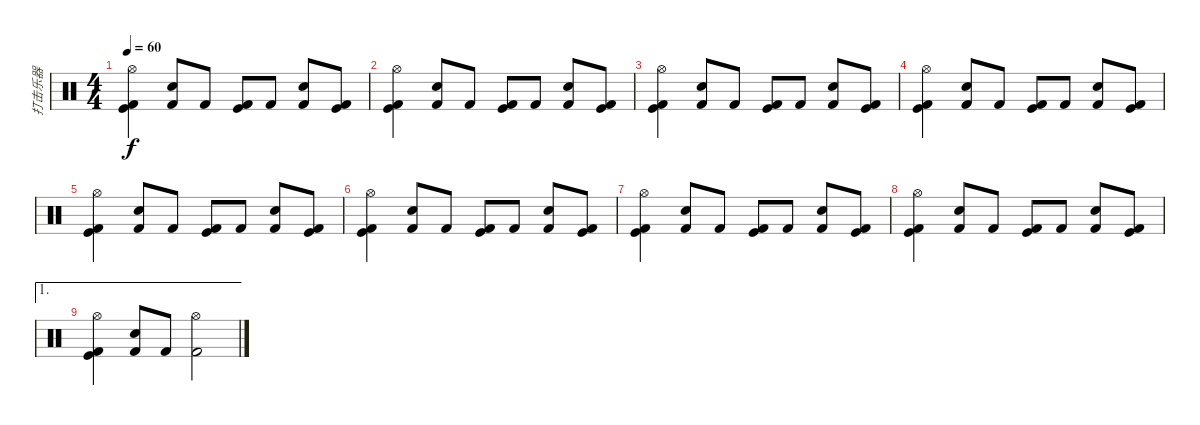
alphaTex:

\track ("打击乐器" "打击乐器") {instrument percussion}
\staff {score}
\articulation defaults
\ts (4 4)
\tempo 60
\clef neutral
\ks c
("Kick (hit) 2" "Kick (hit)" "Hi-Hat (open)").4{dy f} ("Kick (hit) 2" "Electric Snare (hit)").8 "Kick (hit) 2".8 ("Kick (hit) 2" "Kick (hit)").8 "Kick (hit) 2".8 ("Kick (hit) 2" "Electric Snare (hit)").8 ("Kick (hit) 2" "Kick (hit)").8 |
("Kick (hit) 2" "Kick (hit)" "Hi-Hat (open)").4 ("Kick (hit) 2" "Electric Snare (hit)").8 "Kick (hit) 2".8 ("Kick (hit) 2" "Kick (hit)").8 "Kick (hit) 2".8 ("Kick (hit) 2" "Electric Snare (hit)").8 ("Kick (hit) 2" "Kick (hit)").8 |
("Kick (hit) 2" "Kick (hit)" "Hi-Hat (open)").4 ("Kick (hit) 2" "Electric Snare (hit)").8 "Kick (hit) 2".8 ("Kick (hit) 2" "Kick (hit)").8 "Kick (hit) 2".8 ("Kick (hit) 2" "Electric Snare (hit)").8 ("Kick (hit) 2" "Kick (hit)").8 |
("Kick (hit) 2" "Kick (hit)" "Hi-Hat (open)").4 ("Kick (hit) 2" "Electric Snare (hit)").8 "Kick (hit) 2".8 ("Kick (hit) 2" "Kick (hit)").8 "Kick (hit) 2".8 ("Kick (hit) 2" "Electric Snare (hit)").8 ("Kick (hit) 2" "Kick (hit)").8 |
("Kick (hit) 2" "Kick (hit)" "Hi-Hat (open)").4 ("Kick (hit) 2" "Electric Snare (hit)").8 "Kick (hit) 2".8 ("Kick (hit) 2" "Kick (hit)").8 "Kick (hit) 2".8 ("Kick (hit) 2" "Electric Snare (hit)").8 ("Kick (hit) 2" "Kick (hit)").8 |
("Kick (hit) 2" "Kick (hit)" "Hi-Hat (open)").4 ("Kick (hit) 2" "Electric Snare (hit)").8 "Kick (hit) 2".8 ("Kick (hit) 2" "Kick (hit)").8 "Kick (hit) 2".8 ("Kick (hit) 2" "Electric Snare (hit)").8 ("Kick (hit) 2" "Kick (hit)").8 |
("Kick (hit) 2" "Kick (hit)" "Hi-Hat (open)").4 ("Kick (hit) 2" "Electric Snare (hit)").8 "Kick (hit) 2".8 ("Kick (hit) 2" "Kick (hit)").8 "Kick (hit) 2".8 ("Kick (hit) 2" "Electric Snare (hit)").8 ("Kick (hit) 2" "Kick (hit)").8 |
("Kick (hit) 2" "Kick (hit)" "Hi-Hat (open)").4 ("Kick (hit) 2" "Electric Snare (hit)").8 "Kick (hit) 2".8 ("Kick (hit) 2" "Kick (hit)").8 "Kick (hit) 2".8 ("Kick (hit) 2" "Electric Snare (hit)").8 ("Kick (hit) 2" "Kick (hit)").8 |
\ae 1
("Kick (hit) 2" "Kick (hit)" "Hi-Hat (open)").4 ("Kick (hit) 2" "Electric Snare (hit)").8 "Kick (hit) 2".8 ("Hi-Hat (open)" "Kick (hit) 2").2
